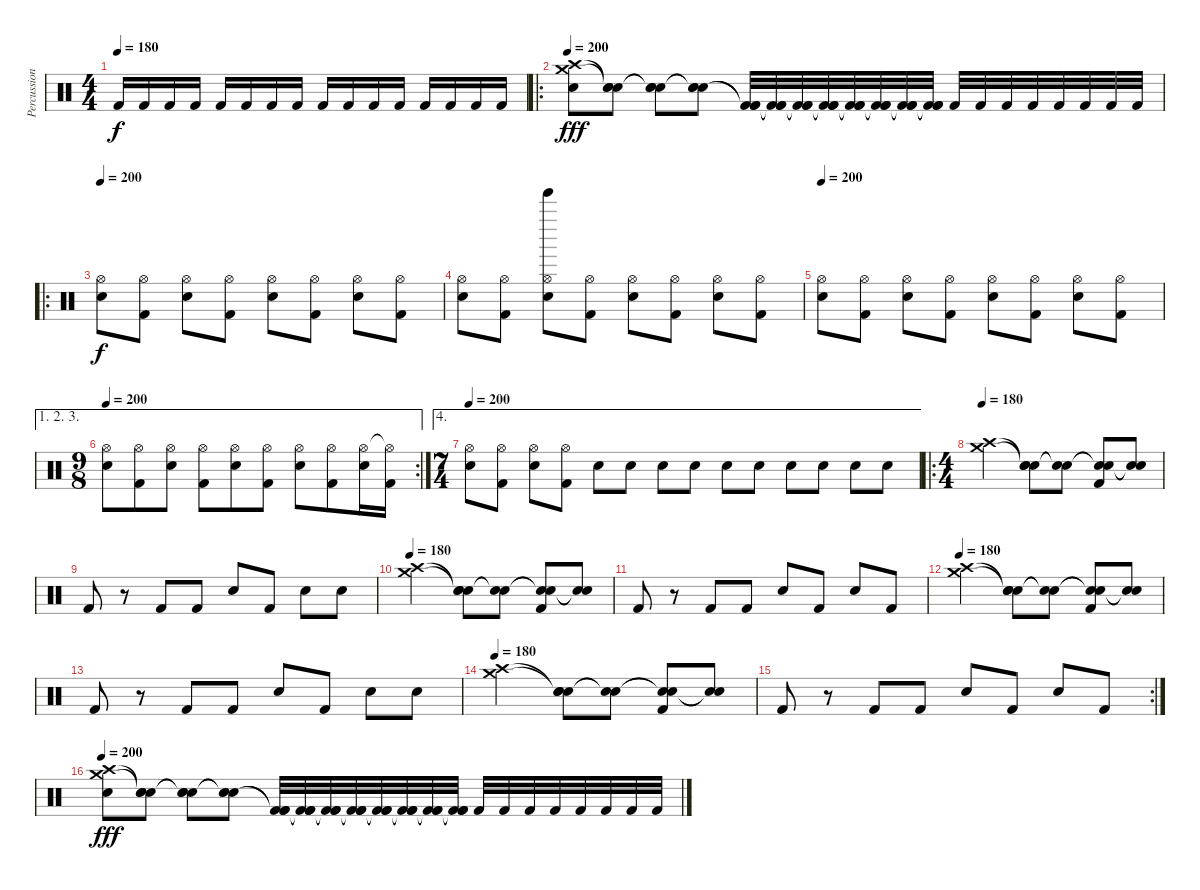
\track ("Percussion 1" "Percussion") {instrument percussion}
\staff {score}
\articulation defaults
\ts (4 4)
\tempo 180
\clef neutral
\ks c "Kick (hit) 2".16{dy f} "Kick (hit) 2".16 "Kick (hit) 2".16 "Kick (hit) 2".16 "Kick (hit) 2".16 "Kick (hit) 2".16 "Kick (hit) 2".16 "Kick (hit) 2".16 "Kick (hit) 2".16 "Kick (hit) 2".16 "Kick (hit) 2".16 "Kick (hit) 2".16 "Kick (hit) 2".16 "Kick (hit) 2".16 "Kick (hit) 2".16 "Kick (hit) 2".16
|
\ro
\tempo 200
("Crash high (hit)" "Crash medium (hit)" "Snare (hit) 2").8{dy fff} ("Snare (hit) 2"{t} "Snare (hit) 2"{t} "Snare (hit) 2").8 ("Snare (hit) 2"{t} "Snare (hit) 2"{t} "Snare (hit) 2").8 ("Snare (hit) 2"{t} "Snare (hit) 2"{t} "Snare (hit) 2").8 ("Kick (hit) 2"{t} "Kick (hit) 2"{t} "Kick (hit) 2").32 ("Kick (hit) 2"{t} "Kick (hit) 2"{t} "Kick (hit) 2").32 ("Kick (hit) 2"{t} "Kick (hit) 2"{t} "Kick (hit) 2").32 ("Kick (hit) 2"{t} "Kick (hit) 2"{t} "Kick (hit) 2").32 ("Kick (hit) 2"{t} "Kick (hit) 2"{t} "Kick (hit) 2").32 ("Kick (hit) 2"{t} "Kick (hit) 2"{t} "Kick (hit) 2").32 ("Kick (hit) 2"{t} "Kick (hit) 2"{t} "Kick (hit) 2").32 ("Kick (hit) 2"{t} "Kick (hit) 2"{t} "Kick (hit) 2").32 "Kick (hit) 2".32 "Kick (hit) 2".32 "Kick (hit) 2".32 "Kick (hit) 2".32 "Kick (hit) 2".32 "Kick (hit) 2".32 "Kick (hit) 2".32 "Kick (hit) 2".32 |
\ro
\tempo 200
("Hi-Hat (open)" "Snare (hit) 2").8{dy f} ("Hi-Hat (open)" "Kick (hit) 2").8 ("Hi-Hat (open)" "Snare (hit) 2").8 ("Hi-Hat (open)" "Kick (hit) 2").8 ("Hi-Hat (open)" "Snare (hit) 2").8 ("Hi-Hat (open)" "Kick (hit) 2").8 ("Hi-Hat (open)" "Snare (hit) 2").8 ("Hi-Hat (open)" "Kick (hit) 2").8 |
("Hi-Hat (open)" "Snare (hit) 2").8 ("Hi-Hat (open)" "Kick (hit) 2").8 ("Tinkle Bell (hit)" "Hi-Hat (open)" "Snare (hit) 2").8 ("Hi-Hat (open)" "Kick (hit) 2").8 ("Hi-Hat (open)" "Snare (hit) 2").8 ("Hi-Hat (open)" "Kick (hit) 2").8 ("Hi-Hat (open)" "Snare (hit) 2").8 ("Hi-Hat (open)" "Kick (hit) 2").8 |
\tempo 200
("Hi-Hat (open)" "Snare (hit) 2").8 ("Hi-Hat (open)" "Kick (hit) 2").8 ("Hi-Hat (open)" "Snare (hit) 2").8 ("Hi-Hat (open)" "Kick (hit) 2").8 ("Hi-Hat (open)" "Snare (hit) 2").8 ("Hi-Hat (open)" "Kick (hit) 2").8 ("Hi-Hat (open)" "Snare (hit) 2").8 ("Hi-Hat (open)" "Kick (hit) 2").8 |
\ae (1 2 3)
\rc 2
\ts (9 8)
\tempo 200
("Hi-Hat (open)" "Snare (hit) 2").8 ("Hi-Hat (open)" "Kick (hit) 2").8 ("Hi-Hat (open)" "Snare (hit) 2").8 ("Hi-Hat (open)" "Kick (hit) 2").8 ("Hi-Hat (open)" "Snare (hit) 2").8 ("Hi-Hat (open)" "Kick (hit) 2").8 ("Hi-Hat (open)" "Snare (hit) 2").8 ("Hi-Hat (open)" "Kick (hit) 2").8 ("Hi-Hat (open)" "Snare (hit) 2").16 ("Hi-Hat (open)"{t} "Kick (hit) 2").16 |
\ae 4
\ts (7 4)
\tempo 200
("Hi-Hat (open)" "Snare (hit) 2").8 ("Hi-Hat (open)" "Kick (hit) 2").8 ("Hi-Hat (open)" "Snare (hit) 2").8 ("Hi-Hat (open)" "Kick (hit) 2").8 "Snare (hit) 2".8 "Snare (hit) 2".8 "Snare (hit) 2".8 "Snare (hit) 2".8 "Snare (hit) 2".8 "Snare (hit) 2".8 "Snare (hit) 2".8 "Snare (hit) 2".8 "Snare (hit) 2".8 "Snare (hit) 2".8 |
\ro
\ts (4 4)
\tempo 180
("Crash high (hit)" "Crash medium (hit)").2 ("Snare (hit)"{t} "Snare (hit)"{t} "Snare (hit) 2").8 ("Snare (hit)"{t} "Snare (hit)"{t}).8 ("Snare (hit)"{t} "Snare (hit)"{t} "Kick (hit) 2").8 ("Snare (hit)"{t} "Snare (hit)"{t}).8 |
"Kick (hit) 2".8 r.8 "Kick (hit) 2".8 "Kick (hit) 2".8 "Snare (hit) 2".8 "Kick (hit) 2".8 "Snare (hit) 2".8 "Snare (hit) 2".8 |
\tempo 180
("Crash high (hit)" "Crash medium (hit)").2 ("Snare (hit)"{t} "Snare (hit)"{t} "Snare (hit) 2").8 ("Snare (hit)"{t} "Snare (hit)"{t}).8 ("Snare (hit)"{t} "Snare (hit)"{t} "Kick (hit) 2").8 ("Snare (hit)"{t} "Snare (hit)"{t}).8 |
"Kick (hit) 2".8 r.8 "Kick (hit) 2".8 "Kick (hit) 2".8 "Snare (hit) 2".8 "Kick (hit) 2".8 "Snare (hit) 2".8 "Kick (hit) 2".8 |
\tempo 180
("Crash high (hit)" "Crash medium (hit)").2 ("Snare (hit)"{t} "Snare (hit)"{t} "Snare (hit) 2").8 ("Snare (hit)"{t} "Snare (hit)"{t}).8 ("Snare (hit)"{t} "Snare (hit)"{t} "Kick (hit) 2").8 ("Snare (hit)"{t} "Snare (hit)"{t}).8 |
"Kick (hit) 2".8 r.8 "Kick (hit) 2".8 "Kick (hit) 2".8 "Snare (hit) 2".8 "Kick (hit) 2".8 "Snare (hit) 2".8 "Snare (hit) 2".8 |
\tempo 180
("Crash high (hit)" "Crash medium (hit)").2 ("Snare (hit)"{t} "Snare (hit)"{t} "Snare (hit) 2").8 ("Snare (hit)"{t} "Snare (hit)"{t}).8 ("Snare (hit)"{t} "Snare (hit)"{t} "Kick (hit) 2").8 ("Snare (hit)"{t} "Snare (hit)"{t}).8 |
\rc 2 "Kick (hit) 2".8
r.8 "Kick (hit) 2".8 "Kick (hit) 2".8 "Snare (hit) 2".8 "Kick (hit) 2".8 "Snare (hit) 2".8 "Kick (hit) 2".8 |
\tempo 200
("Crash high (hit)" "Crash medium (hit)" "Snare (hit) 2").8{dy fff} ("Snare (hit) 2"{t} "Snare (hit) 2"{t} "Snare (hit) 2").8 ("Snare (hit) 2"{t} "Snare (hit) 2"{t} "Snare (hit) 2").8 ("Snare (hit) 2"{t} "Snare (hit) 2"{t} "Snare (hit) 2").8 ("Kick (hit) 2"{t} "Kick (hit) 2"{t} "Kick (hit) 2").32 ("Kick (hit) 2"{t} "Kick (hit) 2"{t} "Kick (hit) 2").32 ("Kick (hit) 2"{t} "Kick (hit) 2"{t} "Kick (hit) 2").32 ("Kick (hit) 2"{t} "Kick (hit) 2"{t} "Kick (hit) 2").32 ("Kick (hit) 2"{t} "Kick (hit) 2"{t} "Kick (hit) 2").32 ("Kick (hit) 2"{t} "Kick (hit) 2"{t} "Kick (hit) 2").32 ("Kick (hit) 2"{t} "Kick (hit) 2"{t} "Kick (hit) 2").32 ("Kick (hit) 2"{t} "Kick (hit) 2"{t} "Kick (hit) 2").32 "Kick (hit) 2".32 "Kick (hit) 2".32 "Kick (hit) 2".32 "Kick (hit) 2".32 "Kick (hit) 2".32 "Kick (hit) 2".32 "Kick (hit) 2".32 "Kick (hit) 2".32
